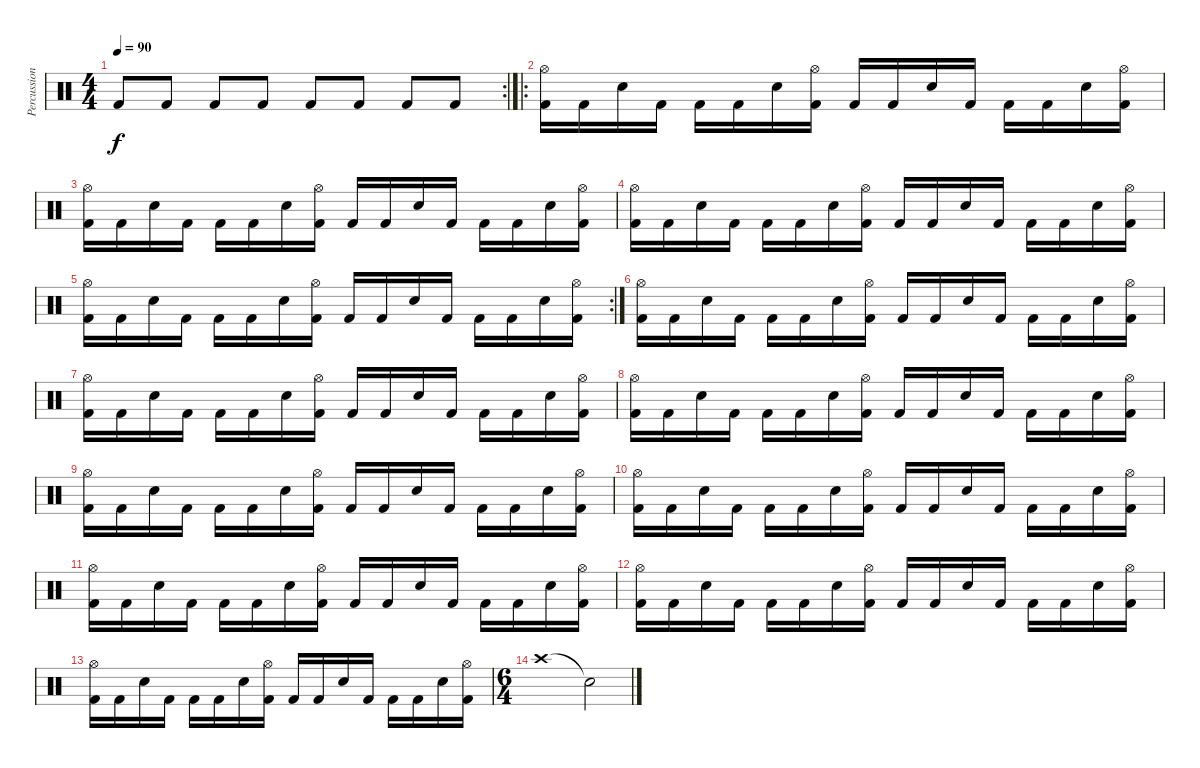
\track ("Percussion" "Percussion") {instrument percussion}
\staff {score}
\articulation defaults
\rc 2
\ts (4 4)
\tempo 90
\clef neutral
\ks c "Kick (hit) 2".8{dy f} "Kick (hit) 2".8 "Kick (hit) 2".8 "Kick (hit) 2".8 "Kick (hit) 2".8 "Kick (hit) 2".8 "Kick (hit) 2".8 "Kick (hit) 2".8
|
\ro
("Hi-Hat (open)" "Kick (hit) 2").16 "Kick (hit) 2".16 "Snare (hit) 2".16 "Kick (hit) 2".16 "Kick (hit) 2".16 "Kick (hit) 2".16 "Snare (hit) 2".16 ("Hi-Hat (open)" "Kick (hit) 2").16 "Kick (hit) 2".16 "Kick (hit) 2".16 "Snare (hit) 2".16 "Kick (hit) 2".16 "Kick (hit) 2".16 "Kick (hit) 2".16 "Snare (hit) 2".16 ("Hi-Hat (open)" "Kick (hit) 2").16 |
("Hi-Hat (open)" "Kick (hit) 2").16 "Kick (hit) 2".16 "Snare (hit) 2".16 "Kick (hit) 2".16 "Kick (hit) 2".16 "Kick (hit) 2".16 "Snare (hit) 2".16 ("Hi-Hat (open)" "Kick (hit) 2").16 "Kick (hit) 2".16 "Kick (hit) 2".16 "Snare (hit) 2".16 "Kick (hit) 2".16 "Kick (hit) 2".16 "Kick (hit) 2".16 "Snare (hit) 2".16 ("Hi-Hat (open)" "Kick (hit) 2").16 |
("Hi-Hat (open)" "Kick (hit) 2").16 "Kick (hit) 2".16 "Snare (hit) 2".16 "Kick (hit) 2".16 "Kick (hit) 2".16 "Kick (hit) 2".16 "Snare (hit) 2".16 ("Hi-Hat (open)" "Kick (hit) 2").16 "Kick (hit) 2".16 "Kick (hit) 2".16 "Snare (hit) 2".16 "Kick (hit) 2".16 "Kick (hit) 2".16 "Kick (hit) 2".16 "Snare (hit) 2".16 ("Hi-Hat (open)" "Kick (hit) 2").16 |
\rc 2
("Hi-Hat (open)" "Kick (hit) 2").16 "Kick (hit) 2".16 "Snare (hit) 2".16 "Kick (hit) 2".16 "Kick (hit) 2".16 "Kick (hit) 2".16 "Snare (hit) 2".16 ("Hi-Hat (open)" "Kick (hit) 2").16 "Kick (hit) 2".16 "Kick (hit) 2".16 "Snare (hit) 2".16 "Kick (hit) 2".16 "Kick (hit) 2".16 "Kick (hit) 2".16 "Snare (hit) 2".16 ("Hi-Hat (open)" "Kick (hit) 2").16 |
("Hi-Hat (open)" "Kick (hit) 2").16 "Kick (hit) 2".16 "Snare (hit) 2".16 "Kick (hit) 2".16 "Kick (hit) 2".16 "Kick (hit) 2".16 "Snare (hit) 2".16 ("Hi-Hat (open)" "Kick (hit) 2").16 "Kick (hit) 2".16 "Kick (hit) 2".16 "Snare (hit) 2".16 "Kick (hit) 2".16 "Kick (hit) 2".16 "Kick (hit) 2".16 "Snare (hit) 2".16 ("Hi-Hat (open)" "Kick (hit) 2").16 |
("Hi-Hat (open)" "Kick (hit) 2").16 "Kick (hit) 2".16 "Snare (hit) 2".16 "Kick (hit) 2".16 "Kick (hit) 2".16 "Kick (hit) 2".16 "Snare (hit) 2".16 ("Hi-Hat (open)" "Kick (hit) 2").16 "Kick (hit) 2".16 "Kick (hit) 2".16 "Snare (hit) 2".16 "Kick (hit) 2".16 "Kick (hit) 2".16 "Kick (hit) 2".16 "Snare (hit) 2".16 ("Hi-Hat (open)" "Kick (hit) 2").16 |
("Hi-Hat (open)" "Kick (hit) 2").16 "Kick (hit) 2".16 "Snare (hit) 2".16 "Kick (hit) 2".16 "Kick (hit) 2".16 "Kick (hit) 2".16 "Snare (hit) 2".16 ("Hi-Hat (open)" "Kick (hit) 2").16 "Kick (hit) 2".16 "Kick (hit) 2".16 "Snare (hit) 2".16 "Kick (hit) 2".16 "Kick (hit) 2".16 "Kick (hit) 2".16 "Snare (hit) 2".16 ("Hi-Hat (open)" "Kick (hit) 2").16 |
("Hi-Hat (open)" "Kick (hit) 2").16 "Kick (hit) 2".16 "Snare (hit) 2".16 "Kick (hit) 2".16 "Kick (hit) 2".16 "Kick (hit) 2".16 "Snare (hit) 2".16 ("Hi-Hat (open)" "Kick (hit) 2").16 "Kick (hit) 2".16 "Kick (hit) 2".16 "Snare (hit) 2".16 "Kick (hit) 2".16 "Kick (hit) 2".16 "Kick (hit) 2".16 "Snare (hit) 2".16 ("Hi-Hat (open)" "Kick (hit) 2").16 |
("Hi-Hat (open)" "Kick (hit) 2").16 "Kick (hit) 2".16 "Snare (hit) 2".16 "Kick (hit) 2".16 "Kick (hit) 2".16 "Kick (hit) 2".16 "Snare (hit) 2".16 ("Hi-Hat (open)" "Kick (hit) 2").16 "Kick (hit) 2".16 "Kick (hit) 2".16 "Snare (hit) 2".16 "Kick (hit) 2".16 "Kick (hit) 2".16 "Kick (hit) 2".16 "Snare (hit) 2".16 ("Hi-Hat (open)" "Kick (hit) 2").16 |
("Hi-Hat (open)" "Kick (hit) 2").16 "Kick (hit) 2".16 "Snare (hit) 2".16 "Kick (hit) 2".16 "Kick (hit) 2".16 "Kick (hit) 2".16 "Snare (hit) 2".16 ("Hi-Hat (open)" "Kick (hit) 2").16 "Kick (hit) 2".16 "Kick (hit) 2".16 "Snare (hit) 2".16 "Kick (hit) 2".16 "Kick (hit) 2".16 "Kick (hit) 2".16 "Snare (hit) 2".16 ("Hi-Hat (open)" "Kick (hit) 2").16 |
("Hi-Hat (open)" "Kick (hit) 2").16 "Kick (hit) 2".16 "Snare (hit) 2".16 "Kick (hit) 2".16 "Kick (hit) 2".16 "Kick (hit) 2".16 "Snare (hit) 2".16 ("Hi-Hat (open)" "Kick (hit) 2").16 "Kick (hit) 2".16 "Kick (hit) 2".16 "Snare (hit) 2".16 "Kick (hit) 2".16 "Kick (hit) 2".16 "Kick (hit) 2".16 "Snare (hit) 2".16 ("Hi-Hat (open)" "Kick (hit) 2").16 |
("Hi-Hat (open)" "Kick (hit) 2").16 "Kick (hit) 2".16 "Snare (hit) 2".16 "Kick (hit) 2".16 "Kick (hit) 2".16 "Kick (hit) 2".16 "Snare (hit) 2".16 ("Hi-Hat (open)" "Kick (hit) 2").16 "Kick (hit) 2".16 "Kick (hit) 2".16 "Snare (hit) 2".16 "Kick (hit) 2".16 "Kick (hit) 2".16 "Kick (hit) 2".16 "Snare (hit) 2".16 ("Hi-Hat (open)" "Kick (hit) 2").16 |
\ts (6 4)
"Crash high (hit)".1 "Snare (hit)"{t}.2
